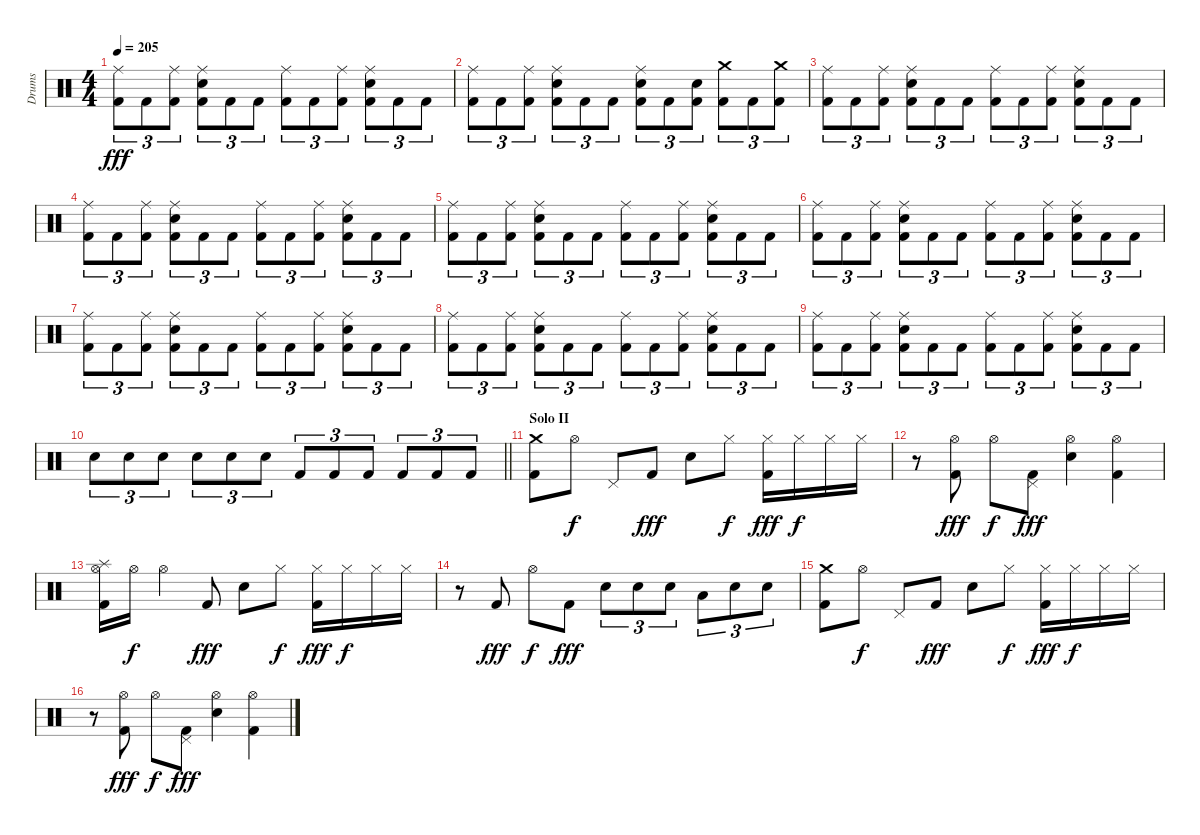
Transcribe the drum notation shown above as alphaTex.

\track ("Drums" "Drums") {instrument percussion}
\staff {score}
\articulation defaults
\ts (4 4)
\tempo 205
\clef neutral
\ks c
("Ride (middle)" "Kick (hit) 2").8{tu (3 2) dy fff} "Kick (hit) 2".8{tu (3 2)} ("Ride (middle)" "Kick (hit) 2").8{tu (3 2)} ("Ride (middle)" "Snare (hit) 2" "Kick (hit) 2").8{tu (3 2)} "Kick (hit) 2".8{tu (3 2)} "Kick (hit) 2".8{tu (3 2)} ("Ride (middle)" "Kick (hit) 2").8{tu (3 2)} "Kick (hit) 2".8{tu (3 2)} ("Ride (middle)" "Kick (hit) 2").8{tu (3 2)} ("Ride (middle)" "Snare (hit) 2" "Kick (hit) 2").8{tu (3 2)} "Kick (hit) 2".8{tu (3 2)} "Kick (hit) 2".8{tu (3 2)} |
("Ride (middle)" "Kick (hit) 2").8{tu (3 2)} "Kick (hit) 2".8{tu (3 2)} ("Ride (middle)" "Kick (hit) 2").8{tu (3 2)} ("Ride (middle)" "Snare (hit) 2" "Kick (hit) 2").8{tu (3 2)} "Kick (hit) 2".8{tu (3 2)} "Kick (hit) 2".8{tu (3 2)} ("Ride (middle)" "Snare (hit) 2" "Kick (hit) 2").8{tu (3 2)} "Kick (hit) 2".8{tu (3 2)} ("Snare (hit) 2" "Kick (hit) 2").8{tu (3 2)} ("Crash medium (hit)" "Kick (hit) 2").8{tu (3 2)} "Kick (hit) 2".8{tu (3 2)} ("Crash medium (hit)" "Kick (hit) 2").8{tu (3 2)} |
("Ride (middle)" "Kick (hit) 2").8{tu (3 2)} "Kick (hit) 2".8{tu (3 2)} ("Ride (middle)" "Kick (hit) 2").8{tu (3 2)} ("Ride (middle)" "Snare (hit) 2" "Kick (hit) 2").8{tu (3 2)} "Kick (hit) 2".8{tu (3 2)} "Kick (hit) 2".8{tu (3 2)} ("Ride (middle)" "Kick (hit) 2").8{tu (3 2)} "Kick (hit) 2".8{tu (3 2)} ("Ride (middle)" "Kick (hit) 2").8{tu (3 2)} ("Ride (middle)" "Snare (hit) 2" "Kick (hit) 2").8{tu (3 2)} "Kick (hit) 2".8{tu (3 2)} "Kick (hit) 2".8{tu (3 2)} |
("Ride (middle)" "Kick (hit) 2").8{tu (3 2)} "Kick (hit) 2".8{tu (3 2)} ("Ride (middle)" "Kick (hit) 2").8{tu (3 2)} ("Ride (middle)" "Snare (hit) 2" "Kick (hit) 2").8{tu (3 2)} "Kick (hit) 2".8{tu (3 2)} "Kick (hit) 2".8{tu (3 2)} ("Ride (middle)" "Kick (hit) 2").8{tu (3 2)} "Kick (hit) 2".8{tu (3 2)} ("Ride (middle)" "Kick (hit) 2").8{tu (3 2)} ("Ride (middle)" "Snare (hit) 2" "Kick (hit) 2").8{tu (3 2)} "Kick (hit) 2".8{tu (3 2)} "Kick (hit) 2".8{tu (3 2)} |
("Ride (middle)" "Kick (hit) 2").8{tu (3 2)} "Kick (hit) 2".8{tu (3 2)} ("Ride (middle)" "Kick (hit) 2").8{tu (3 2)} ("Ride (middle)" "Snare (hit) 2" "Kick (hit) 2").8{tu (3 2)} "Kick (hit) 2".8{tu (3 2)} "Kick (hit) 2".8{tu (3 2)} ("Ride (middle)" "Kick (hit) 2").8{tu (3 2)} "Kick (hit) 2".8{tu (3 2)} ("Ride (middle)" "Kick (hit) 2").8{tu (3 2)} ("Ride (middle)" "Snare (hit) 2" "Kick (hit) 2").8{tu (3 2)} "Kick (hit) 2".8{tu (3 2)} "Kick (hit) 2".8{tu (3 2)} |
("Ride (middle)" "Kick (hit) 2").8{tu (3 2)} "Kick (hit) 2".8{tu (3 2)} ("Ride (middle)" "Kick (hit) 2").8{tu (3 2)} ("Ride (middle)" "Snare (hit) 2" "Kick (hit) 2").8{tu (3 2)} "Kick (hit) 2".8{tu (3 2)} "Kick (hit) 2".8{tu (3 2)} ("Ride (middle)" "Kick (hit) 2").8{tu (3 2)} "Kick (hit) 2".8{tu (3 2)} ("Ride (middle)" "Kick (hit) 2").8{tu (3 2)} ("Ride (middle)" "Snare (hit) 2" "Kick (hit) 2").8{tu (3 2)} "Kick (hit) 2".8{tu (3 2)} "Kick (hit) 2".8{tu (3 2)} |
("Ride (middle)" "Kick (hit) 2").8{tu (3 2)} "Kick (hit) 2".8{tu (3 2)} ("Ride (middle)" "Kick (hit) 2").8{tu (3 2)} ("Ride (middle)" "Snare (hit) 2" "Kick (hit) 2").8{tu (3 2)} "Kick (hit) 2".8{tu (3 2)} "Kick (hit) 2".8{tu (3 2)} ("Ride (middle)" "Kick (hit) 2").8{tu (3 2)} "Kick (hit) 2".8{tu (3 2)} ("Ride (middle)" "Kick (hit) 2").8{tu (3 2)} ("Ride (middle)" "Snare (hit) 2" "Kick (hit) 2").8{tu (3 2)} "Kick (hit) 2".8{tu (3 2)} "Kick (hit) 2".8{tu (3 2)} |
("Ride (middle)" "Kick (hit) 2").8{tu (3 2)} "Kick (hit) 2".8{tu (3 2)} ("Ride (middle)" "Kick (hit) 2").8{tu (3 2)} ("Ride (middle)" "Snare (hit) 2" "Kick (hit) 2").8{tu (3 2)} "Kick (hit) 2".8{tu (3 2)} "Kick (hit) 2".8{tu (3 2)} ("Ride (middle)" "Kick (hit) 2").8{tu (3 2)} "Kick (hit) 2".8{tu (3 2)} ("Ride (middle)" "Kick (hit) 2").8{tu (3 2)} ("Ride (middle)" "Snare (hit) 2" "Kick (hit) 2").8{tu (3 2)} "Kick (hit) 2".8{tu (3 2)} "Kick (hit) 2".8{tu (3 2)} |
("Ride (middle)" "Kick (hit) 2").8{tu (3 2)} "Kick (hit) 2".8{tu (3 2)} ("Ride (middle)" "Kick (hit) 2").8{tu (3 2)} ("Ride (middle)" "Snare (hit) 2" "Kick (hit) 2").8{tu (3 2)} "Kick (hit) 2".8{tu (3 2)} "Kick (hit) 2".8{tu (3 2)} ("Ride (middle)" "Kick (hit) 2").8{tu (3 2)} "Kick (hit) 2".8{tu (3 2)} ("Ride (middle)" "Kick (hit) 2").8{tu (3 2)} ("Ride (middle)" "Snare (hit) 2" "Kick (hit) 2").8{tu (3 2)} "Kick (hit) 2".8{tu (3 2)} "Kick (hit) 2".8{tu (3 2)} |
\barLineRight lightlight "Snare (hit) 2".8{tu (3 2)} "Snare (hit) 2".8{tu (3 2)} "Snare (hit) 2".8{tu (3 2)} "Snare (hit) 2".8{tu (3 2)} "Snare (hit) 2".8{tu (3 2)} "Snare (hit) 2".8{tu (3 2)} "Kick (hit) 2".8{tu (3 2)} "Kick (hit) 2".8{tu (3 2)} "Kick (hit) 2".8{tu (3 2)} "Kick (hit) 2".8{tu (3 2)} "Kick (hit) 2".8{tu (3 2)} "Kick (hit) 2".8{tu (3 2)}
|
\section ("" "Solo II")
("Crash medium (hit)" "Kick (hit) 2").8 "Hi-Hat (open)".8{dy f} "Pedal Hi-Hat (hit)".8 "Kick (hit) 2".8{dy fff} "Snare (hit) 2".8 "Hi-Hat (closed)".8{dy f} ("Hi-Hat (closed)" "Kick (hit) 2").16{dy fff} "Hi-Hat (closed)".16{dy f} "Hi-Hat (closed)".16 "Hi-Hat (closed)".16 |
r.8 ("Hi-Hat (open)" "Kick (hit) 2").8{dy fff} "Hi-Hat (open)".8{dy f} ("Pedal Hi-Hat (hit)" "Kick (hit) 2").8{dy fff} ("Hi-Hat (open)" "Snare (hit) 2").4 ("Hi-Hat (open)" "Kick (hit) 2").4 |
("Hi-Hat (open)" "Splash (hit)" "Kick (hit) 2").16 "Hi-Hat (open)".16{dy f} "Hi-Hat (open)".4 "Kick (hit) 2".8{dy fff} "Snare (hit) 2".8 "Hi-Hat (closed)".8{dy f} ("Hi-Hat (closed)" "Kick (hit) 2").16{dy fff} "Hi-Hat (closed)".16{dy f} "Hi-Hat (closed)".16 "Hi-Hat (closed)".16 |
r.8 "Kick (hit) 2".8{dy fff} "Hi-Hat (open)".8{dy f} "Kick (hit) 2".8{dy fff} "Snare (hit) 2".8{tu (3 2)} "Snare (hit) 2".8{tu (3 2)} "Snare (hit) 2".8{tu (3 2)} "Low Tom (hit)".8{tu (3 2)} "Snare (hit) 2".8{tu (3 2)} "Snare (hit) 2".8{tu (3 2)} |
("Crash medium (hit)" "Kick (hit) 2").8 "Hi-Hat (open)".8{dy f} "Pedal Hi-Hat (hit)".8 "Kick (hit) 2".8{dy fff} "Snare (hit) 2".8 "Hi-Hat (closed)".8{dy f} ("Hi-Hat (closed)" "Kick (hit) 2").16{dy fff} "Hi-Hat (closed)".16{dy f} "Hi-Hat (closed)".16 "Hi-Hat (closed)".16 |
r.8 ("Hi-Hat (open)" "Kick (hit) 2").8{dy fff} "Hi-Hat (open)".8{dy f} ("Pedal Hi-Hat (hit)" "Kick (hit) 2").8{dy fff} ("Hi-Hat (open)" "Snare (hit) 2").4 ("Hi-Hat (open)" "Kick (hit) 2").4
